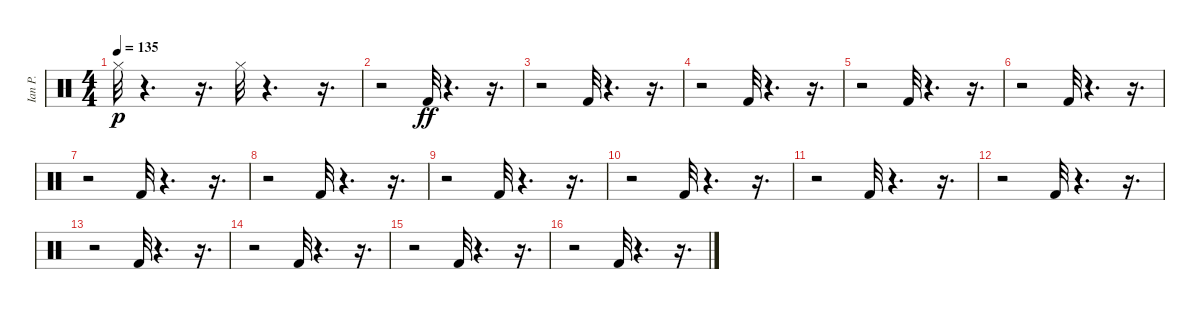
\track ("Ian P." "Ian P.") {instrument percussion}
\staff {score}
\articulation defaults
\ts (4 4)
\tempo 135
\clef neutral
\ks c "Hi-Hat (closed)".32{dy p}
r.4{d} r.16{d} "Hi-Hat (closed)".32 r.4{d} r.16{d} |
r.2 "Kick (hit) 2".32{dy ff} r.4{d} r.16{d} |
r.2 "Kick (hit) 2".32 r.4{d} r.16{d} |
r.2 "Kick (hit) 2".32 r.4{d} r.16{d} |
r.2 "Kick (hit) 2".32 r.4{d} r.16{d} |
r.2 "Kick (hit) 2".32 r.4{d} r.16{d} |
r.2 "Kick (hit) 2".32 r.4{d} r.16{d} |
r.2 "Kick (hit) 2".32 r.4{d} r.16{d} |
r.2 "Kick (hit) 2".32 r.4{d} r.16{d} |
r.2 "Kick (hit) 2".32 r.4{d} r.16{d} |
r.2 "Kick (hit) 2".32 r.4{d} r.16{d} |
r.2 "Kick (hit) 2".32 r.4{d} r.16{d} |
r.2 "Kick (hit) 2".32 r.4{d} r.16{d} |
r.2 "Kick (hit) 2".32 r.4{d} r.16{d} |
r.2 "Kick (hit) 2".32 r.4{d} r.16{d} |
r.2 "Kick (hit) 2".32 r.4{d} r.16{d}
